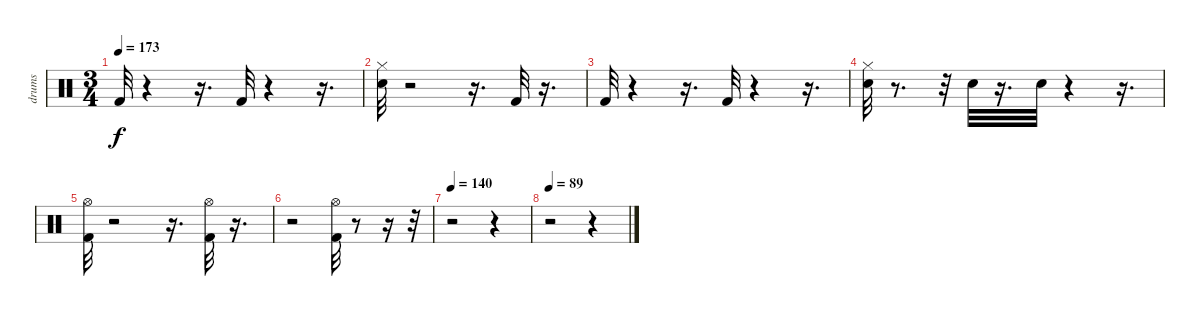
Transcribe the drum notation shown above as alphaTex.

\track ("drums" "drums") {instrument percussion}
\staff {score}
\articulation defaults
\ts (3 4)
\tempo 173
\clef neutral
\ks c "Kick (hit) 2".32{dy f}
r.4 r.16{d} "Kick (hit) 2".32 r.4 r.16{d} |
("Hi-Hat (closed)" "Snare (hit) 2").32 r.2 r.16{d} "Kick (hit) 2".32 r.16{d} |
"Kick (hit) 2".32 r.4 r.16{d} "Kick (hit) 2".32 r.4 r.16{d} |
("Hi-Hat (closed)" "Snare (hit) 2").32 r.8{d} r.32 "Snare (hit) 2".32 r.16{d} "Snare (hit) 2".32 r.4 r.16{d} |
("Hi-Hat (open)" "Kick (hit) 2").32 r.2 r.16{d} ("Hi-Hat (open)" "Kick (hit) 2").32 r.16{d} |
r.2 ("Kick (hit) 2" "Hi-Hat (open)").32 r.8 r.16 r.32 |
\tempo 140
r.2 r.4 |
\tempo 89
r.2 r.4
